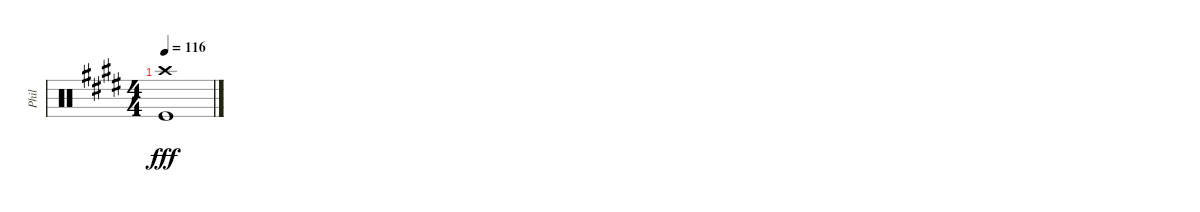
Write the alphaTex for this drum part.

\track ("Phil" "Phil") {instrument percussion}
\staff {score}
\articulation defaults
\ts (4 4)
\tempo 116
\clef neutral
\ks e
("Crash high (hit)" "Kick (hit)").1{dy fff}
